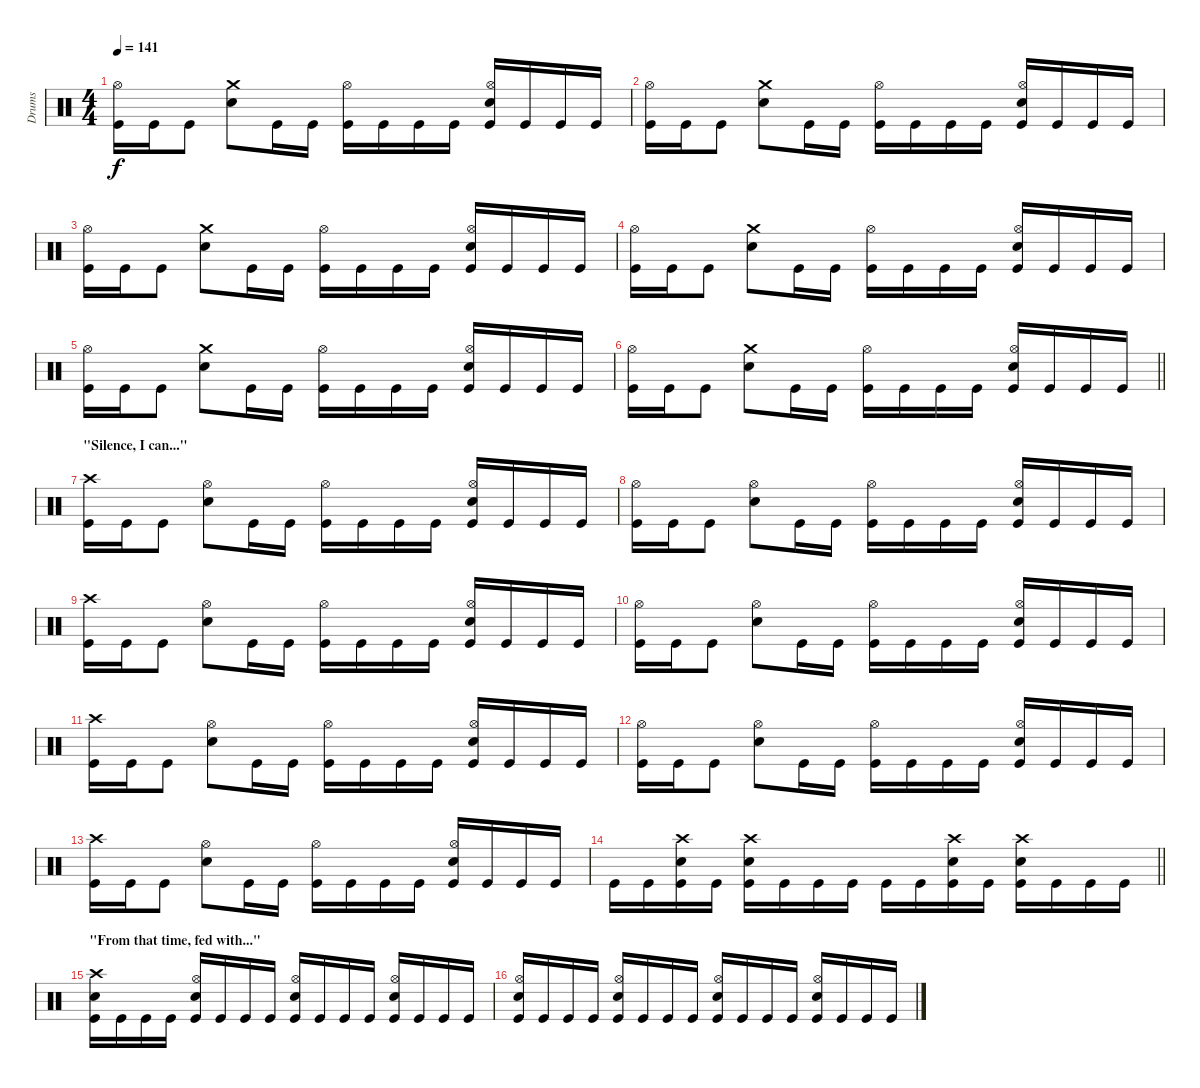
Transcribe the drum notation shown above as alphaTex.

\track ("Drums" "Drums") {instrument percussion}
\staff {score}
\articulation defaults
\ts (4 4)
\tempo 141
\clef neutral
\ks c
("Kick (hit)" "Hi-Hat (open)").16{dy f} "Kick (hit)".16 "Kick (hit)".8 ("Snare (hit) 2" "Crash medium (hit)").8 "Kick (hit)".16 "Kick (hit)".16 ("Kick (hit)" "Hi-Hat (open)").16 "Kick (hit)".16 "Kick (hit)".16 "Kick (hit)".16 ("Kick (hit)" "Snare (hit) 2" "Hi-Hat (open)").16 "Kick (hit)".16 "Kick (hit)".16 "Kick (hit)".16 |
("Kick (hit)" "Hi-Hat (open)").16 "Kick (hit)".16 "Kick (hit)".8 ("Snare (hit) 2" "Crash medium (hit)").8 "Kick (hit)".16 "Kick (hit)".16 ("Kick (hit)" "Hi-Hat (open)").16 "Kick (hit)".16 "Kick (hit)".16 "Kick (hit)".16 ("Kick (hit)" "Snare (hit) 2" "Hi-Hat (open)").16 "Kick (hit)".16 "Kick (hit)".16 "Kick (hit)".16 |
("Kick (hit)" "Hi-Hat (open)").16 "Kick (hit)".16 "Kick (hit)".8 ("Snare (hit) 2" "Crash medium (hit)").8 "Kick (hit)".16 "Kick (hit)".16 ("Kick (hit)" "Hi-Hat (open)").16 "Kick (hit)".16 "Kick (hit)".16 "Kick (hit)".16 ("Kick (hit)" "Snare (hit) 2" "Hi-Hat (open)").16 "Kick (hit)".16 "Kick (hit)".16 "Kick (hit)".16 |
("Kick (hit)" "Hi-Hat (open)").16 "Kick (hit)".16 "Kick (hit)".8 ("Snare (hit) 2" "Crash medium (hit)").8 "Kick (hit)".16 "Kick (hit)".16 ("Kick (hit)" "Hi-Hat (open)").16 "Kick (hit)".16 "Kick (hit)".16 "Kick (hit)".16 ("Kick (hit)" "Snare (hit) 2" "Hi-Hat (open)").16 "Kick (hit)".16 "Kick (hit)".16 "Kick (hit)".16 |
("Kick (hit)" "Hi-Hat (open)").16 "Kick (hit)".16 "Kick (hit)".8 ("Snare (hit) 2" "Crash medium (hit)").8 "Kick (hit)".16 "Kick (hit)".16 ("Kick (hit)" "Hi-Hat (open)").16 "Kick (hit)".16 "Kick (hit)".16 "Kick (hit)".16 ("Kick (hit)" "Snare (hit) 2" "Hi-Hat (open)").16 "Kick (hit)".16 "Kick (hit)".16 "Kick (hit)".16 |
\barLineRight lightlight
("Kick (hit)" "Hi-Hat (open)").16 "Kick (hit)".16 "Kick (hit)".8 ("Snare (hit) 2" "Crash medium (hit)").8 "Kick (hit)".16 "Kick (hit)".16 ("Kick (hit)" "Hi-Hat (open)").16 "Kick (hit)".16 "Kick (hit)".16 "Kick (hit)".16 ("Kick (hit)" "Snare (hit) 2" "Hi-Hat (open)").16 "Kick (hit)".16 "Kick (hit)".16 "Kick (hit)".16 |
\section ("" "\"Silence, I can...\"")
("Kick (hit)" "Crash high (hit)").16 "Kick (hit)".16 "Kick (hit)".8 ("Snare (hit) 2" "Hi-Hat (open)").8 "Kick (hit)".16 "Kick (hit)".16 ("Kick (hit)" "Hi-Hat (open)").16 "Kick (hit)".16 "Kick (hit)".16 "Kick (hit)".16 ("Kick (hit)" "Snare (hit) 2" "Hi-Hat (open)").16 "Kick (hit)".16 "Kick (hit)".16 "Kick (hit)".16 |
("Kick (hit)" "Hi-Hat (open)").16 "Kick (hit)".16 "Kick (hit)".8 ("Snare (hit) 2" "Hi-Hat (open)").8 "Kick (hit)".16 "Kick (hit)".16 ("Kick (hit)" "Hi-Hat (open)").16 "Kick (hit)".16 "Kick (hit)".16 "Kick (hit)".16 ("Kick (hit)" "Snare (hit) 2" "Hi-Hat (open)").16 "Kick (hit)".16 "Kick (hit)".16 "Kick (hit)".16 |
("Kick (hit)" "Crash high (hit)").16 "Kick (hit)".16 "Kick (hit)".8 ("Snare (hit) 2" "Hi-Hat (open)").8 "Kick (hit)".16 "Kick (hit)".16 ("Kick (hit)" "Hi-Hat (open)").16 "Kick (hit)".16 "Kick (hit)".16 "Kick (hit)".16 ("Kick (hit)" "Snare (hit) 2" "Hi-Hat (open)").16 "Kick (hit)".16 "Kick (hit)".16 "Kick (hit)".16 |
("Kick (hit)" "Hi-Hat (open)").16 "Kick (hit)".16 "Kick (hit)".8 ("Snare (hit) 2" "Hi-Hat (open)").8 "Kick (hit)".16 "Kick (hit)".16 ("Kick (hit)" "Hi-Hat (open)").16 "Kick (hit)".16 "Kick (hit)".16 "Kick (hit)".16 ("Kick (hit)" "Snare (hit) 2" "Hi-Hat (open)").16 "Kick (hit)".16 "Kick (hit)".16 "Kick (hit)".16 |
("Kick (hit)" "Crash high (hit)").16 "Kick (hit)".16 "Kick (hit)".8 ("Snare (hit) 2" "Hi-Hat (open)").8 "Kick (hit)".16 "Kick (hit)".16 ("Kick (hit)" "Hi-Hat (open)").16 "Kick (hit)".16 "Kick (hit)".16 "Kick (hit)".16 ("Kick (hit)" "Snare (hit) 2" "Hi-Hat (open)").16 "Kick (hit)".16 "Kick (hit)".16 "Kick (hit)".16 |
("Kick (hit)" "Hi-Hat (open)").16 "Kick (hit)".16 "Kick (hit)".8 ("Snare (hit) 2" "Hi-Hat (open)").8 "Kick (hit)".16 "Kick (hit)".16 ("Kick (hit)" "Hi-Hat (open)").16 "Kick (hit)".16 "Kick (hit)".16 "Kick (hit)".16 ("Kick (hit)" "Snare (hit) 2" "Hi-Hat (open)").16 "Kick (hit)".16 "Kick (hit)".16 "Kick (hit)".16 |
("Kick (hit)" "Crash high (hit)").16 "Kick (hit)".16 "Kick (hit)".8 ("Snare (hit) 2" "Hi-Hat (open)").8 "Kick (hit)".16 "Kick (hit)".16 ("Kick (hit)" "Hi-Hat (open)").16 "Kick (hit)".16 "Kick (hit)".16 "Kick (hit)".16 ("Kick (hit)" "Snare (hit) 2" "Hi-Hat (open)").16 "Kick (hit)".16 "Kick (hit)".16 "Kick (hit)".16 |
\barLineRight lightlight "Kick (hit)".16 "Kick (hit)".16
("Snare (hit) 2" "Crash high (hit)" "Kick (hit)").16 "Kick (hit)".16 ("Snare (hit) 2" "Crash high (hit)" "Kick (hit)").16 "Kick (hit)".16 "Kick (hit)".16 "Kick (hit)".16 "Kick (hit)".16 "Kick (hit)".16 ("Snare (hit) 2" "Crash high (hit)" "Kick (hit)").16 "Kick (hit)".16 ("Snare (hit) 2" "Crash high (hit)" "Kick (hit)").16 "Kick (hit)".16 "Kick (hit)".16 "Kick (hit)".16 |
\section ("" "\"From that time, fed with...\"")
("Kick (hit)" "Snare (hit) 2" "Crash high (hit)").16 "Kick (hit)".16 "Kick (hit)".16 "Kick (hit)".16 ("Kick (hit)" "Snare (hit) 2" "Hi-Hat (open)").16 "Kick (hit)".16 "Kick (hit)".16 "Kick (hit)".16 ("Kick (hit)" "Snare (hit) 2" "Hi-Hat (open)").16 "Kick (hit)".16 "Kick (hit)".16 "Kick (hit)".16 ("Kick (hit)" "Snare (hit) 2" "Hi-Hat (open)").16 "Kick (hit)".16 "Kick (hit)".16 "Kick (hit)".16 |
("Kick (hit)" "Snare (hit) 2" "Hi-Hat (open)").16 "Kick (hit)".16 "Kick (hit)".16 "Kick (hit)".16 ("Kick (hit)" "Snare (hit) 2" "Hi-Hat (open)").16 "Kick (hit)".16 "Kick (hit)".16 "Kick (hit)".16 ("Kick (hit)" "Snare (hit) 2" "Hi-Hat (open)").16 "Kick (hit)".16 "Kick (hit)".16 "Kick (hit)".16 ("Kick (hit)" "Snare (hit) 2" "Hi-Hat (open)").16 "Kick (hit)".16 "Kick (hit)".16 "Kick (hit)".16
